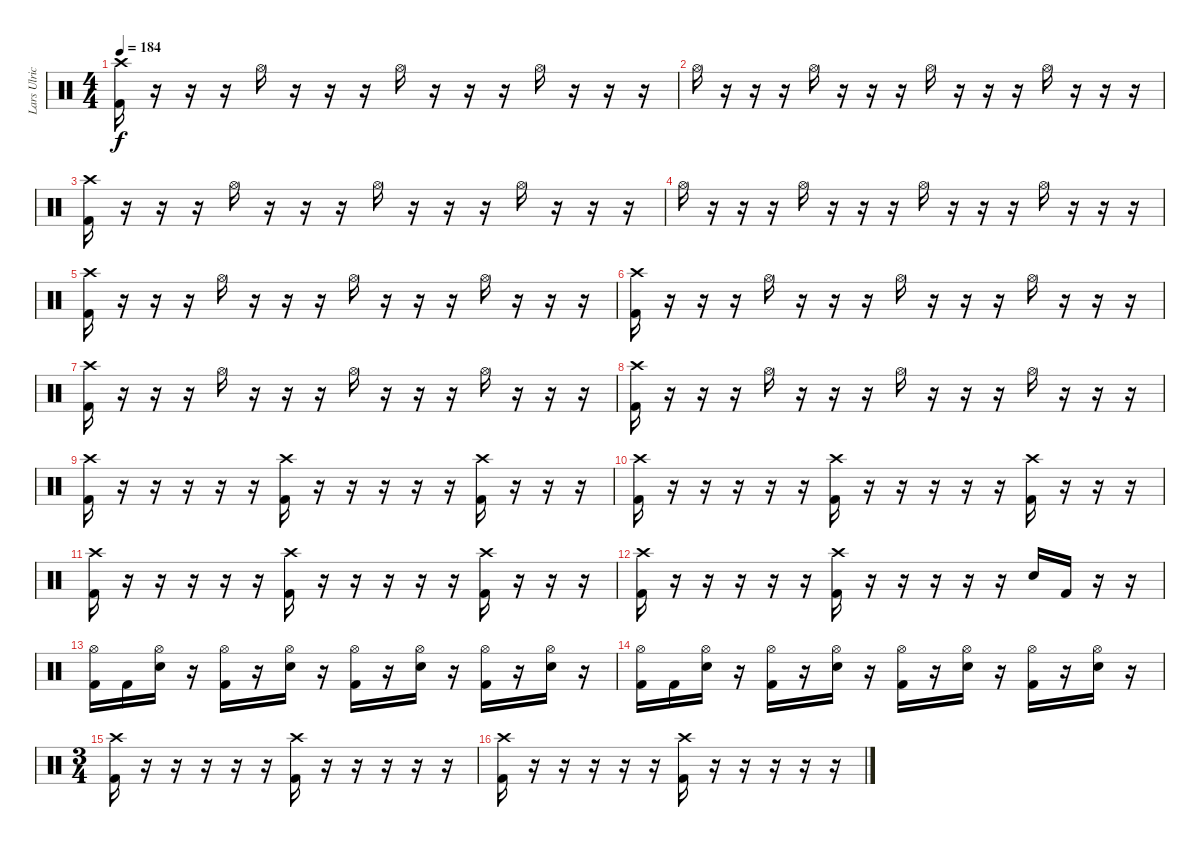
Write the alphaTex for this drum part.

\track ("Lars Ulrich" "Lars Ulric") {instrument percussion}
\staff {score}
\articulation defaults
\ts (4 4)
\tempo 184
\clef neutral
\ks c
("Crash high (hit)" "Kick (hit) 2").16{dy f} r.16 r.16 r.16 "Hi-Hat (open)".16 r.16 r.16 r.16 "Hi-Hat (open)".16 r.16 r.16 r.16 "Hi-Hat (open)".16 r.16 r.16 r.16 |
"Hi-Hat (open)".16 r.16 r.16 r.16 "Hi-Hat (open)".16 r.16 r.16 r.16 "Hi-Hat (open)".16 r.16 r.16 r.16 "Hi-Hat (open)".16 r.16 r.16 r.16 |
("Crash high (hit)" "Kick (hit) 2").16 r.16 r.16 r.16 "Hi-Hat (open)".16 r.16 r.16 r.16 "Hi-Hat (open)".16 r.16 r.16 r.16 "Hi-Hat (open)".16 r.16 r.16 r.16 |
"Hi-Hat (open)".16 r.16 r.16 r.16 "Hi-Hat (open)".16 r.16 r.16 r.16 "Hi-Hat (open)".16 r.16 r.16 r.16 "Hi-Hat (open)".16 r.16 r.16 r.16 |
("Crash high (hit)" "Kick (hit) 2").16 r.16 r.16 r.16 "Hi-Hat (open)".16 r.16 r.16 r.16 "Hi-Hat (open)".16 r.16 r.16 r.16 "Hi-Hat (open)".16 r.16 r.16 r.16 |
("Crash high (hit)" "Kick (hit) 2").16 r.16 r.16 r.16 "Hi-Hat (open)".16 r.16 r.16 r.16 "Hi-Hat (open)".16 r.16 r.16 r.16 "Hi-Hat (open)".16 r.16 r.16 r.16 |
("Crash high (hit)" "Kick (hit) 2").16 r.16 r.16 r.16 "Hi-Hat (open)".16 r.16 r.16 r.16 "Hi-Hat (open)".16 r.16 r.16 r.16 "Hi-Hat (open)".16 r.16 r.16 r.16 |
("Crash high (hit)" "Kick (hit) 2").16 r.16 r.16 r.16 "Hi-Hat (open)".16 r.16 r.16 r.16 "Hi-Hat (open)".16 r.16 r.16 r.16 "Hi-Hat (open)".16 r.16 r.16 r.16 |
("Crash high (hit)" "Kick (hit) 2").16 r.16 r.16 r.16 r.16 r.16 ("Crash high (hit)" "Kick (hit) 2").16 r.16 r.16 r.16 r.16 r.16 ("Crash high (hit)" "Kick (hit) 2").16 r.16 r.16 r.16 |
("Crash high (hit)" "Kick (hit) 2").16 r.16 r.16 r.16 r.16 r.16 ("Crash high (hit)" "Kick (hit) 2").16 r.16 r.16 r.16 r.16 r.16 ("Crash high (hit)" "Kick (hit) 2").16 r.16 r.16 r.16 |
("Crash high (hit)" "Kick (hit) 2").16 r.16 r.16 r.16 r.16 r.16 ("Crash high (hit)" "Kick (hit) 2").16 r.16 r.16 r.16 r.16 r.16 ("Crash high (hit)" "Kick (hit) 2").16 r.16 r.16 r.16 |
("Crash high (hit)" "Kick (hit) 2").16 r.16 r.16 r.16 r.16 r.16 ("Crash high (hit)" "Kick (hit) 2").16 r.16 r.16 r.16 r.16 r.16 "Electric Snare (hit)".16 "Kick (hit) 2".16 r.16 r.16 |
("Hi-Hat (open)" "Kick (hit) 2").16 "Kick (hit) 2".16 ("Electric Snare (hit)" "Hi-Hat (open)").16 r.16 ("Hi-Hat (open)" "Kick (hit) 2").16 r.16 ("Electric Snare (hit)" "Hi-Hat (open)").16 r.16 ("Hi-Hat (open)" "Kick (hit) 2").16 r.16 ("Electric Snare (hit)" "Hi-Hat (open)").16 r.16 ("Hi-Hat (open)" "Kick (hit) 2").16 r.16 ("Electric Snare (hit)" "Hi-Hat (open)").16 r.16 |
("Hi-Hat (open)" "Kick (hit) 2").16 "Kick (hit) 2".16 ("Electric Snare (hit)" "Hi-Hat (open)").16 r.16 ("Hi-Hat (open)" "Kick (hit) 2").16 r.16 ("Electric Snare (hit)" "Hi-Hat (open)").16 r.16 ("Hi-Hat (open)" "Kick (hit) 2").16 r.16 ("Electric Snare (hit)" "Hi-Hat (open)").16 r.16 ("Hi-Hat (open)" "Kick (hit) 2").16 r.16 ("Electric Snare (hit)" "Hi-Hat (open)").16 r.16 |
\ts (3 4)
("Crash high (hit)" "Kick (hit) 2").16 r.16 r.16 r.16 r.16 r.16 ("Crash high (hit)" "Kick (hit) 2").16 r.16 r.16 r.16 r.16 r.16 |
("Crash high (hit)" "Kick (hit) 2").16 r.16 r.16 r.16 r.16 r.16 ("Crash high (hit)" "Kick (hit) 2").16 r.16 r.16 r.16 r.16 r.16
